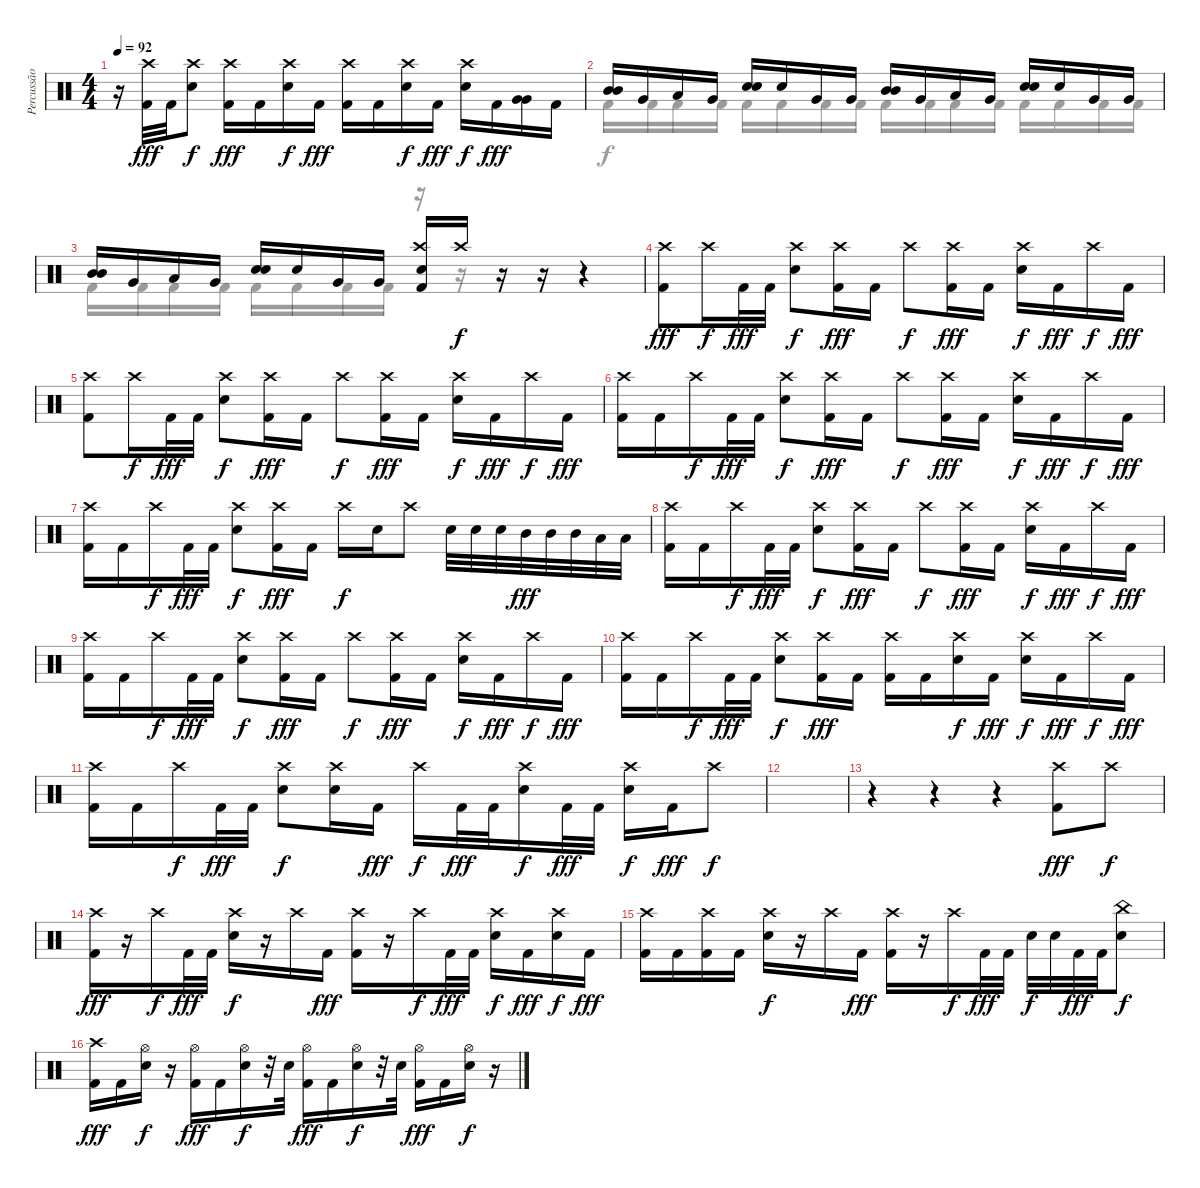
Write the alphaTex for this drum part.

\track ("Percussão" "Percussão") {instrument percussion}
\staff {score}
\articulation defaults
\voice
\ts (4 4)
\tempo 92
\clef neutral
\ks c
r.16{dy fff} ("Crash high (hit)" "Kick (hit) 2").32 "Kick (hit) 2".32 ("Crash high (hit)" "Electric Snare (hit)").8{dy f} ("Crash high (hit)" "Kick (hit) 2").16{dy fff} "Kick (hit) 2".16 ("Crash high (hit)" "Electric Snare (hit)").16{dy f} "Kick (hit) 2".16{dy fff} ("Crash high (hit)" "Kick (hit) 2").16 "Kick (hit) 2".16 ("Crash high (hit)" "Electric Snare (hit)").16{dy f} "Kick (hit) 2".16{dy fff} ("Crash high (hit)" "Electric Snare (hit)").16{dy f} "Kick (hit) 2".16{dy fff} ("Very Low Tom (hit)" "Very Low Tom (hit)").16{bd 120 volume 16} "Kick (hit) 2".16{volume 11} |
("Mid Tom (hit)" "Mid Tom (hit)").16{bd 60 volume 16} "Very Low Tom (hit)".16 "Low Tom (hit)".16 "Very Low Tom (hit)".16 ("Electric Snare (hit)" "Electric Snare (hit)").16{bd 60} "Electric Snare (hit)".16 "Very Low Tom (hit)".16 "Very Low Tom (hit)".16 ("Mid Tom (hit)" "Mid Tom (hit)").16{bd 60} "Very Low Tom (hit)".16 "Low Tom (hit)".16 "Very Low Tom (hit)".16 ("Electric Snare (hit)" "Electric Snare (hit)").16{bd 60} "Electric Snare (hit)".16 "Very Low Tom (hit)".16 "Very Low Tom (hit)".16 |
("Mid Tom (hit)" "Mid Tom (hit)").16{bd 60} "Very Low Tom (hit)".16 "Low Tom (hit)".16 "Very Low Tom (hit)".16 ("Electric Snare (hit)" "Electric Snare (hit)").16{bd 60} "Electric Snare (hit)".16 "Very Low Tom (hit)".16 "Very Low Tom (hit)".16 ("Crash high (hit)" "Electric Snare (hit)" "Kick (hit) 2").16{volume 11} "Crash high (hit)".16{dy f volume 0} r.16 r.16 r.4 |
("Crash high (hit)" "Kick (hit) 2").8{dy fff volume 11} "Crash high (hit)".16{dy f} "Kick (hit) 2".32{dy fff} "Kick (hit) 2".32 ("Crash high (hit)" "Electric Snare (hit)").8{dy f} ("Crash high (hit)" "Kick (hit) 2").16{dy fff} "Kick (hit) 2".16 "Crash high (hit)".8{dy f} ("Crash high (hit)" "Kick (hit) 2").16{dy fff} "Kick (hit) 2".16 ("Crash high (hit)" "Electric Snare (hit)").16{dy f} "Kick (hit) 2".16{dy fff} "Crash high (hit)".16{dy f} "Kick (hit) 2".16{dy fff} |
("Crash high (hit)" "Kick (hit) 2").8 "Crash high (hit)".16{dy f} "Kick (hit) 2".32{dy fff} "Kick (hit) 2".32 ("Crash high (hit)" "Electric Snare (hit)").8{dy f} ("Crash high (hit)" "Kick (hit) 2").16{dy fff} "Kick (hit) 2".16 "Crash high (hit)".8{dy f} ("Crash high (hit)" "Kick (hit) 2").16{dy fff} "Kick (hit) 2".16 ("Crash high (hit)" "Electric Snare (hit)").16{dy f} "Kick (hit) 2".16{dy fff} "Crash high (hit)".16{dy f} "Kick (hit) 2".16{dy fff} |
("Crash high (hit)" "Kick (hit) 2").16 "Kick (hit) 2".16 "Crash high (hit)".16{dy f} "Kick (hit) 2".32{dy fff} "Kick (hit) 2".32 ("Crash high (hit)" "Electric Snare (hit)").8{dy f} ("Crash high (hit)" "Kick (hit) 2").16{dy fff} "Kick (hit) 2".16 "Crash high (hit)".8{dy f} ("Crash high (hit)" "Kick (hit) 2").16{dy fff} "Kick (hit) 2".16 ("Crash high (hit)" "Electric Snare (hit)").16{dy f} "Kick (hit) 2".16{dy fff} "Crash high (hit)".16{dy f} "Kick (hit) 2".16{dy fff} |
("Crash high (hit)" "Kick (hit) 2").16 "Kick (hit) 2".16 "Crash high (hit)".16{dy f} "Kick (hit) 2".32{dy fff} "Kick (hit) 2".32 ("Crash high (hit)" "Electric Snare (hit)").8{dy f} ("Crash high (hit)" "Kick (hit) 2").16{dy fff} "Kick (hit) 2".16 "Crash high (hit)".16{dy f} "Electric Snare (hit)".16 "Crash high (hit)".8 "Electric Snare (hit)".32 "Electric Snare (hit)".32 "Electric Snare (hit)".32 "Mid Tom (hit)".32{dy fff volume 16} "Mid Tom (hit)".32 "Mid Tom (hit)".32 "Low Tom (hit)".32 "Low Tom (hit)".32 |
("Crash high (hit)" "Kick (hit) 2").16{volume 11} "Kick (hit) 2".16 "Crash high (hit)".16{dy f} "Kick (hit) 2".32{dy fff} "Kick (hit) 2".32 ("Crash high (hit)" "Electric Snare (hit)").8{dy f} ("Crash high (hit)" "Kick (hit) 2").16{dy fff} "Kick (hit) 2".16 "Crash high (hit)".8{dy f} ("Crash high (hit)" "Kick (hit) 2").16{dy fff} "Kick (hit) 2".16 ("Crash high (hit)" "Electric Snare (hit)").16{dy f} "Kick (hit) 2".16{dy fff} "Crash high (hit)".16{dy f} "Kick (hit) 2".16{dy fff} |
("Crash high (hit)" "Kick (hit) 2").16 "Kick (hit) 2".16 "Crash high (hit)".16{dy f} "Kick (hit) 2".32{dy fff} "Kick (hit) 2".32 ("Crash high (hit)" "Electric Snare (hit)").8{dy f} ("Crash high (hit)" "Kick (hit) 2").16{dy fff} "Kick (hit) 2".16 "Crash high (hit)".8{dy f} ("Crash high (hit)" "Kick (hit) 2").16{dy fff} "Kick (hit) 2".16 ("Crash high (hit)" "Electric Snare (hit)").16{dy f} "Kick (hit) 2".16{dy fff} "Crash high (hit)".16{dy f} "Kick (hit) 2".16{dy fff} |
("Crash high (hit)" "Kick (hit) 2").16 "Kick (hit) 2".16 "Crash high (hit)".16{dy f} "Kick (hit) 2".32{dy fff} "Kick (hit) 2".32 ("Crash high (hit)" "Electric Snare (hit)").8{dy f} ("Crash high (hit)" "Kick (hit) 2").16{dy fff} "Kick (hit) 2".16 ("Crash high (hit)" "Kick (hit) 2").16 "Kick (hit) 2".16 ("Crash high (hit)" "Electric Snare (hit)").16{dy f} "Kick (hit) 2".16{dy fff} ("Crash high (hit)" "Electric Snare (hit)").16{dy f} "Kick (hit) 2".16{dy fff} "Crash high (hit)".16{dy f} "Kick (hit) 2".16{dy fff} |
("Crash high (hit)" "Kick (hit) 2").16 "Kick (hit) 2".16 "Crash high (hit)".16{dy f} "Kick (hit) 2".32{dy fff} "Kick (hit) 2".32 ("Crash high (hit)" "Electric Snare (hit)").8{dy f} ("Crash high (hit)" "Electric Snare (hit)").16 "Kick (hit) 2".16{dy fff} "Crash high (hit)".16{dy f} "Kick (hit) 2".32{dy fff} "Kick (hit) 2".32 ("Crash high (hit)" "Electric Snare (hit)").16{dy f} "Kick (hit) 2".32{dy fff} "Kick (hit) 2".32 ("Crash high (hit)" "Electric Snare (hit)").16{dy f} "Kick (hit) 2".16{dy fff} "Crash high (hit)".8{dy f} |
|
r.4 r.4 r.4 ("Crash high (hit)" "Kick (hit) 2").8{dy fff} "Crash high (hit)".8{dy f volume 0} |
("Crash high (hit)" "Kick (hit) 2").16{dy fff volume 11} r.16 "Crash high (hit)".16{dy f} "Kick (hit) 2".32{dy fff} "Kick (hit) 2".32 ("Crash high (hit)" "Electric Snare (hit)").16{dy f} r.16 "Crash high (hit)".16 "Kick (hit) 2".16{dy fff} ("Crash high (hit)" "Kick (hit) 2").16 r.16 "Crash high (hit)".16{dy f} "Kick (hit) 2".32{dy fff} "Kick (hit) 2".32 ("Crash high (hit)" "Electric Snare (hit)").16{dy f} "Kick (hit) 2".16{dy fff} ("Crash high (hit)" "Electric Snare (hit)").16{dy f} "Kick (hit) 2".16{dy fff} |
("Crash high (hit)" "Kick (hit) 2").16 "Kick (hit) 2".16 ("Crash high (hit)" "Kick (hit) 2").16 "Kick (hit) 2".16 ("Crash high (hit)" "Electric Snare (hit)").16{dy f} r.16 "Crash high (hit)".16 "Kick (hit) 2".16{dy fff} ("Crash high (hit)" "Kick (hit) 2").16 r.16 "Crash high (hit)".16{dy f} "Kick (hit) 2".32{dy fff} "Kick (hit) 2".32 "Electric Snare (hit)".32{dy f} "Electric Snare (hit)".32 "Kick (hit) 2".32{dy fff} "Kick (hit) 2".32 ("China (hit)" "Electric Snare (hit)").8{dy f} |
("Crash high (hit)" "Kick (hit) 2").16{dy fff} "Kick (hit) 2".16 ("Hi-Hat (open)" "Electric Snare (hit)").16{dy f} r.16 ("Hi-Hat (open)" "Kick (hit) 2").16{dy fff} "Kick (hit) 2".16 ("Hi-Hat (open)" "Electric Snare (hit)").16{dy f} r.32 "Electric Snare (hit)".32 ("Hi-Hat (open)" "Kick (hit) 2").16{dy fff} "Kick (hit) 2".16 ("Hi-Hat (open)" "Electric Snare (hit)").16{dy f} r.32 "Electric Snare (hit)".32 ("Hi-Hat (open)" "Kick (hit) 2").16{dy fff} "Kick (hit) 2".16 ("Hi-Hat (open)" "Electric Snare (hit)").16{dy f} r.16
\voice
\clef neutral
\ottava regular
\simile none
\ks c
|
"Kick (hit) 2".16 "Kick (hit) 2".16 "Kick (hit) 2".16 "Kick (hit) 2".16 "Kick (hit) 2".16 "Kick (hit) 2".16 "Kick (hit) 2".16 "Kick (hit) 2".16 "Kick (hit) 2".16 "Kick (hit) 2".16 "Kick (hit) 2".16 "Kick (hit) 2".16 "Kick (hit) 2".16 "Kick (hit) 2".16 "Kick (hit) 2".16 "Kick (hit) 2".16 |
"Kick (hit) 2".16 "Kick (hit) 2".16 "Kick (hit) 2".16 "Kick (hit) 2".16 "Kick (hit) 2".16 "Kick (hit) 2".16 "Kick (hit) 2".16 "Kick (hit) 2".16 r.16 r.16 r.16 r.16 r.4 |
|
|
|
|
|
|
|
|
|
|
|
|
